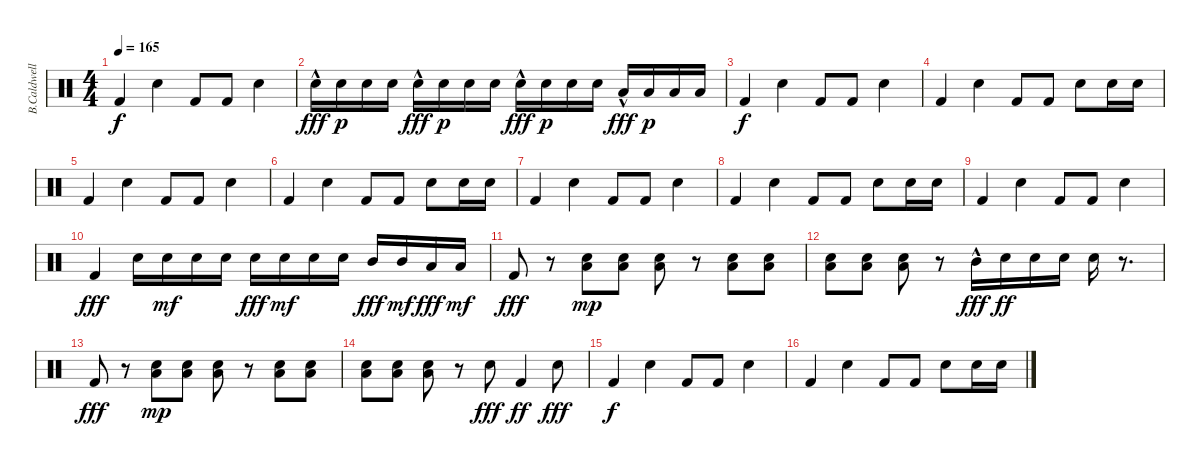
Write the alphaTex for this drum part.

\track ("B.Caldwell" "B.Caldwell") {instrument percussion}
\staff {score}
\articulation defaults
\ts (4 4)
\tempo 165
\clef neutral
\ks c "Kick (hit) 2".4{dy f} "Snare (hit) 2".4 "Kick (hit) 2".8 "Kick (hit) 2".8 "Snare (hit) 2".4
|
"Snare (hit) 2"{hac}.16{dy fff} "Snare (hit) 2".16{dy p} "Snare (hit) 2".16 "Snare (hit) 2".16 "Snare (hit) 2"{hac}.16{dy fff} "Snare (hit) 2".16{dy p} "Snare (hit) 2".16 "Snare (hit) 2".16 "Snare (hit) 2"{hac}.16{dy fff} "Snare (hit) 2".16{dy p} "Snare (hit) 2".16 "Snare (hit) 2".16 "Low Tom (hit)"{hac}.16{dy fff} "Low Tom (hit)".16{dy p} "Low Tom (hit)".16 "Low Tom (hit)".16 |
"Kick (hit) 2".4{dy f} "Snare (hit) 2".4 "Kick (hit) 2".8 "Kick (hit) 2".8 "Snare (hit) 2".4 |
"Kick (hit) 2".4 "Snare (hit) 2".4 "Kick (hit) 2".8 "Kick (hit) 2".8 "Snare (hit) 2".8 "Snare (hit) 2".16 "Snare (hit) 2".16 |
"Kick (hit) 2".4 "Snare (hit) 2".4 "Kick (hit) 2".8 "Kick (hit) 2".8 "Snare (hit) 2".4 |
"Kick (hit) 2".4 "Snare (hit) 2".4 "Kick (hit) 2".8 "Kick (hit) 2".8 "Snare (hit) 2".8 "Snare (hit) 2".16 "Snare (hit) 2".16 |
"Kick (hit) 2".4 "Snare (hit) 2".4 "Kick (hit) 2".8 "Kick (hit) 2".8 "Snare (hit) 2".4 |
"Kick (hit) 2".4 "Snare (hit) 2".4 "Kick (hit) 2".8 "Kick (hit) 2".8 "Snare (hit) 2".8 "Snare (hit) 2".16 "Snare (hit) 2".16 |
"Kick (hit) 2".4 "Snare (hit) 2".4 "Kick (hit) 2".8 "Kick (hit) 2".8 "Snare (hit) 2".4 |
"Kick (hit) 2".4{dy fff} "Snare (hit) 2".16 "Snare (hit) 2".16{dy mf} "Snare (hit) 2".16 "Snare (hit) 2".16 "Snare (hit) 2".16{dy fff} "Snare (hit) 2".16{dy mf} "Snare (hit) 2".16 "Snare (hit) 2".16 "Mid Tom (hit)".16{dy fff} "Mid Tom (hit)".16{dy mf} "Low Tom (hit)".16{dy fff} "Low Tom (hit)".16{dy mf} |
"Kick (hit) 2".8{dy fff} r.8 ("Low Floor Tom (hit)" "Snare (hit) 2").8{dy mp} ("Low Floor Tom (hit)" "Snare (hit) 2").8 ("Low Floor Tom (hit)" "Snare (hit) 2").8 r.8 ("Low Floor Tom (hit)" "Snare (hit) 2").8 ("Low Floor Tom (hit)" "Snare (hit) 2").8 |
("Low Floor Tom (hit)" "Snare (hit) 2").8 ("Low Floor Tom (hit)" "Snare (hit) 2").8 ("Low Floor Tom (hit)" "Snare (hit) 2").8 r.8 "Mid Tom (hit)"{hac}.16{dy fff} "Snare (hit) 2".16{dy ff} "Snare (hit) 2".16 "Snare (hit) 2".16 "Snare (hit) 2".16 r.8{d} |
"Kick (hit) 2".8{dy fff} r.8 ("Low Floor Tom (hit)" "Snare (hit) 2").8{dy mp} ("Low Floor Tom (hit)" "Snare (hit) 2").8 ("Low Floor Tom (hit)" "Snare (hit) 2").8 r.8 ("Low Floor Tom (hit)" "Snare (hit) 2").8 ("Low Floor Tom (hit)" "Snare (hit) 2").8 |
("Low Floor Tom (hit)" "Snare (hit) 2").8 ("Low Floor Tom (hit)" "Snare (hit) 2").8 ("Low Floor Tom (hit)" "Snare (hit) 2").8 r.8 "Snare (hit) 2".8{dy fff} "Kick (hit) 2".4{dy ff} "Snare (hit) 2".8{dy fff} |
"Kick (hit) 2".4{dy f} "Snare (hit) 2".4 "Kick (hit) 2".8 "Kick (hit) 2".8 "Snare (hit) 2".4 |
"Kick (hit) 2".4 "Snare (hit) 2".4 "Kick (hit) 2".8 "Kick (hit) 2".8 "Snare (hit) 2".8 "Snare (hit) 2".16 "Snare (hit) 2".16
